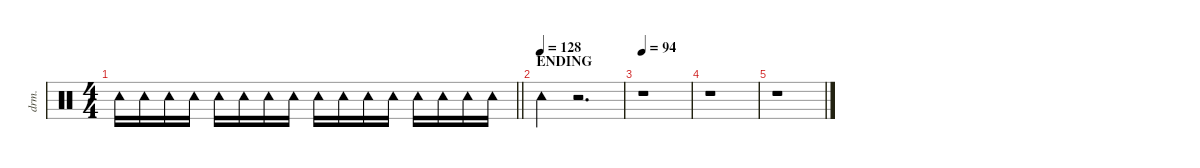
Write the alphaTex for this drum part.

\defaultSystemsLayout 4
\hideDynamics
\bracketExtendMode nobrackets
\otherSystemsTrackNameOrientation horizontal
\track ("Percussion" "drm.") {defaultSystemsLayout 8 solo instrument percussion}
\staff {score}
\articulation defaults
\ts (4 4)
\tempo (128 hide)
\clef neutral
\barLineRight lightlight
\ks c "Tambourine (hit)".16{dy f beam Down} "Tambourine (hit)".16{beam Down} "Tambourine (hit)".16{beam Down} "Tambourine (hit)".16{beam Down} "Tambourine (hit)".16{dy fff beam Down} "Tambourine (hit)".16{dy f beam Down} "Tambourine (hit)".16{beam Down} "Tambourine (hit)".16{beam Down} "Tambourine (hit)".16{beam Down} "Tambourine (hit)".16{beam Down} "Tambourine (hit)".16{beam Down} "Tambourine (hit)".16{beam Down} "Tambourine (hit)".16{dy fff beam Down} "Tambourine (hit)".16{dy f beam Down} "Tambourine (hit)".16{beam Down} "Tambourine (hit)".16{beam Down}
|
\section ("" "ENDING")
\tempo (128)
"Tambourine (hit)".4{beam Down} r.2{d beam Down} |
\tempo 94
r.1{beam Down} |
r.1{beam Down} |
r.1{beam Down}
